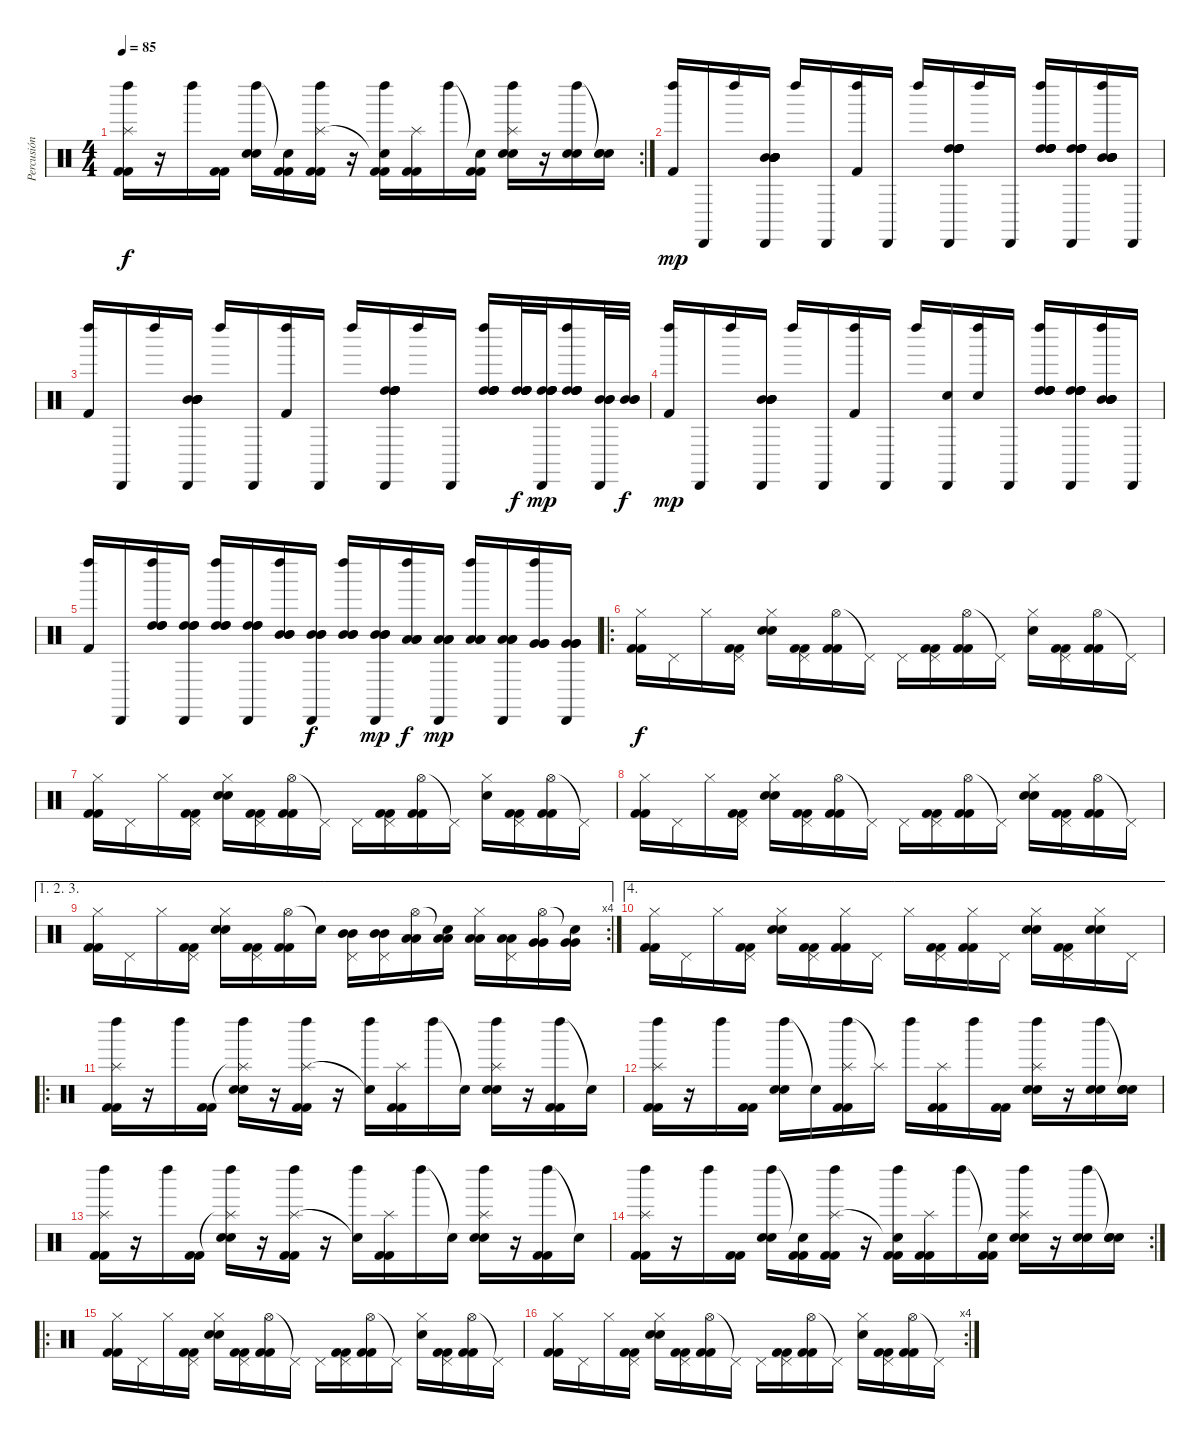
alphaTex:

\track ("Percusión" "Percusión") {instrument percussion}
\staff {score}
\articulation defaults
\rc 2
\ts (4 4)
\tempo 85
\clef neutral
\ks c
("Left Maraca (hit)" "Splash (hit)" "Kick (hit) 2" "Kick (hit) 2").16{dy f} r.16 "Left Maraca (hit)".16 ("Kick (hit) 2" "Kick (hit) 2").16 ("Left Maraca (hit)" "Electric Snare (hit)" "Electric Snare (hit)").16 ("Snare (hit)"{t} "Kick (hit) 2" "Kick (hit) 2").16 ("Left Maraca (hit)" "Splash (hit)" "Kick (hit) 2" "Kick (hit) 2").16 r.16 ("Left Maraca (hit)" "Snare (hit)"{t} "Kick (hit) 2" "Kick (hit) 2").16 ("Splash (hit)" "Kick (hit) 2" "Kick (hit) 2").16 "Left Maraca (hit)".16 ("Snare (hit)"{t} "Kick (hit) 2" "Kick (hit) 2").16 ("Left Maraca (hit)" "Splash (hit)" "Electric Snare (hit)" "Electric Snare (hit)").16 r.16 ("Left Maraca (hit)" "Electric Snare (hit)" "Electric Snare (hit)").16 ("Snare (hit)"{t} "Electric Snare (hit)" "Electric Snare (hit)").16 |
("Left Maraca (hit)" "Kick (hit) 2").16{dy mp} "Cabasa (hit)".16 "Left Maraca (hit)".16 ("Cabasa (hit)" "Mid Tom (hit)" "Mid Tom (hit)" "Mid Tom (hit)" "Mid Tom (hit)" "Mid Tom (hit)").16 "Left Maraca (hit)".16 "Cabasa (hit)".16 ("Left Maraca (hit)" "Kick (hit) 2").16 "Cabasa (hit)".16 "Left Maraca (hit)".16 ("Cabasa (hit)" "High Tom (hit)" "High Tom (hit)" "High Tom (hit)" "High Tom (hit)" "High Tom (hit)").16 "Left Maraca (hit)".16 "Cabasa (hit)".16 ("Left Maraca (hit)" "High Tom (hit)" "High Tom (hit)" "High Tom (hit)" "High Tom (hit)" "High Tom (hit)").16 ("Cabasa (hit)" "High Tom (hit)" "High Tom (hit)" "High Tom (hit)" "High Tom (hit)" "High Tom (hit)").16 ("Left Maraca (hit)" "Mid Tom (hit)" "Mid Tom (hit)" "Mid Tom (hit)" "Mid Tom (hit)" "Mid Tom (hit)").16 "Cabasa (hit)".16 |
("Left Maraca (hit)" "Kick (hit) 2").16 "Cabasa (hit)".16 "Left Maraca (hit)".16 ("Cabasa (hit)" "Mid Tom (hit)" "Mid Tom (hit)" "Mid Tom (hit)" "Mid Tom (hit)" "Mid Tom (hit)").16 "Left Maraca (hit)".16 "Cabasa (hit)".16 ("Left Maraca (hit)" "Kick (hit) 2").16 "Cabasa (hit)".16 "Left Maraca (hit)".16 ("Cabasa (hit)" "High Tom (hit)" "High Tom (hit)" "High Tom (hit)" "High Tom (hit)" "High Tom (hit)").16 "Left Maraca (hit)".16 "Cabasa (hit)".16 ("Left Maraca (hit)" "High Tom (hit)" "High Tom (hit)" "High Tom (hit)" "High Tom (hit)" "High Tom (hit)").16 ("High Tom (hit)" "High Tom (hit)" "High Tom (hit)" "High Tom (hit)" "High Tom (hit)").32{dy f} ("Cabasa (hit)" "High Tom (hit)" "High Tom (hit)" "High Tom (hit)" "High Tom (hit)" "High Tom (hit)").32{dy mp} ("Left Maraca (hit)" "High Tom (hit)" "High Tom (hit)" "High Tom (hit)" "High Tom (hit)" "High Tom (hit)").16 ("Cabasa (hit)" "Mid Tom (hit)" "Mid Tom (hit)" "Mid Tom (hit)").32 ("Mid Tom (hit)" "Mid Tom (hit)" "Mid Tom (hit)").32{dy f} |
("Left Maraca (hit)" "Kick (hit) 2").16{dy mp} "Cabasa (hit)".16 "Left Maraca (hit)".16 ("Cabasa (hit)" "Mid Tom (hit)" "Mid Tom (hit)" "Mid Tom (hit)" "Mid Tom (hit)" "Mid Tom (hit)").16 "Left Maraca (hit)".16 "Cabasa (hit)".16 ("Left Maraca (hit)" "Kick (hit) 2").16 "Cabasa (hit)".16 "Left Maraca (hit)".16 ("Cabasa (hit)" "Electric Snare (hit)").16 ("Left Maraca (hit)" "Electric Snare (hit)").16 "Cabasa (hit)".16 ("Left Maraca (hit)" "High Tom (hit)" "High Tom (hit)" "High Tom (hit)" "High Tom (hit)" "High Tom (hit)").16 ("Cabasa (hit)" "High Tom (hit)" "High Tom (hit)" "High Tom (hit)" "High Tom (hit)" "High Tom (hit)").16 ("Left Maraca (hit)" "Mid Tom (hit)" "Mid Tom (hit)" "Mid Tom (hit)" "Mid Tom (hit)" "Mid Tom (hit)").16 "Cabasa (hit)".16 |
("Left Maraca (hit)" "Kick (hit) 2").16 "Cabasa (hit)".16 ("Left Maraca (hit)" "High Tom (hit)" "High Tom (hit)" "High Tom (hit)").16 ("Cabasa (hit)" "High Tom (hit)" "High Tom (hit)" "High Tom (hit)").16 ("Left Maraca (hit)" "High Tom (hit)" "High Tom (hit)" "High Tom (hit)").16 ("Cabasa (hit)" "High Tom (hit)" "High Tom (hit)" "High Tom (hit)").16 ("Left Maraca (hit)" "Mid Tom (hit)" "Mid Tom (hit)" "Mid Tom (hit)").16 ("Cabasa (hit)" "Mid Tom (hit)" "Mid Tom (hit)" "Mid Tom (hit)").16{dy f} ("Left Maraca (hit)" "Mid Tom (hit)" "Mid Tom (hit)" "Mid Tom (hit)").16 ("Cabasa (hit)" "Mid Tom (hit)" "Mid Tom (hit)" "Mid Tom (hit)").16{dy mp} ("Left Maraca (hit)" "Low Tom (hit)" "Low Tom (hit)" "Low Tom (hit)").16{dy f} ("Cabasa (hit)" "Low Tom (hit)" "Low Tom (hit)" "Low Tom (hit)").16{dy mp} ("Left Maraca (hit)" "Low Tom (hit)" "Low Tom (hit)" "Low Tom (hit)").16 ("Cabasa (hit)" "Low Tom (hit)" "Low Tom (hit)" "Low Tom (hit)").16 ("Left Maraca (hit)" "Very Low Tom (hit)" "Very Low Tom (hit)" "Very Low Tom (hit)").16 ("Cabasa (hit)" "Very Low Tom (hit)" "Very Low Tom (hit)" "Very Low Tom (hit)").16 |
\ro
("Hi-Hat (closed)" "Kick (hit) 2" "Kick (hit) 2").16{dy f} "Pedal Hi-Hat (hit)".16 "Hi-Hat (closed)".16 ("Pedal Hi-Hat (hit)" "Kick (hit) 2" "Kick (hit) 2").16 ("Hi-Hat (closed)" "Electric Snare (hit)" "Electric Snare (hit)").16 ("Pedal Hi-Hat (hit)" "Kick (hit) 2" "Kick (hit) 2").16 ("Hi-Hat (open)" "Kick (hit) 2" "Kick (hit) 2").16 "Pedal Hi-Hat (hit)"{t}.16 "Pedal Hi-Hat (hit)".16 ("Pedal Hi-Hat (hit)" "Kick (hit) 2" "Kick (hit) 2").16 ("Hi-Hat (open)" "Kick (hit) 2" "Kick (hit) 2").16 "Pedal Hi-Hat (hit)"{t}.16 ("Hi-Hat (closed)" "Electric Snare (hit)").16 ("Pedal Hi-Hat (hit)" "Kick (hit) 2" "Kick (hit) 2").16 ("Hi-Hat (open)" "Kick (hit) 2" "Kick (hit) 2").16 "Pedal Hi-Hat (hit)"{t}.16 |
("Hi-Hat (closed)" "Kick (hit) 2" "Kick (hit) 2").16 "Pedal Hi-Hat (hit)".16 "Hi-Hat (closed)".16 ("Pedal Hi-Hat (hit)" "Kick (hit) 2" "Kick (hit) 2").16 ("Hi-Hat (closed)" "Electric Snare (hit)" "Electric Snare (hit)").16 ("Pedal Hi-Hat (hit)" "Kick (hit) 2" "Kick (hit) 2").16 ("Hi-Hat (open)" "Kick (hit) 2" "Kick (hit) 2").16 "Pedal Hi-Hat (hit)"{t}.16 "Pedal Hi-Hat (hit)".16 ("Pedal Hi-Hat (hit)" "Kick (hit) 2" "Kick (hit) 2").16 ("Hi-Hat (open)" "Kick (hit) 2" "Kick (hit) 2").16 "Pedal Hi-Hat (hit)"{t}.16 ("Hi-Hat (closed)" "Electric Snare (hit)").16 ("Pedal Hi-Hat (hit)" "Kick (hit) 2" "Kick (hit) 2").16 ("Hi-Hat (open)" "Kick (hit) 2" "Kick (hit) 2").16 "Pedal Hi-Hat (hit)"{t}.16 |
("Hi-Hat (closed)" "Kick (hit) 2" "Kick (hit) 2").16 "Pedal Hi-Hat (hit)".16 "Hi-Hat (closed)".16 ("Pedal Hi-Hat (hit)" "Kick (hit) 2" "Kick (hit) 2").16 ("Hi-Hat (closed)" "Electric Snare (hit)" "Electric Snare (hit)").16 ("Pedal Hi-Hat (hit)" "Kick (hit) 2" "Kick (hit) 2").16 ("Hi-Hat (open)" "Kick (hit) 2" "Kick (hit) 2").16 "Pedal Hi-Hat (hit)"{t}.16 "Pedal Hi-Hat (hit)".16 ("Pedal Hi-Hat (hit)" "Kick (hit) 2" "Kick (hit) 2").16 ("Hi-Hat (open)" "Kick (hit) 2" "Kick (hit) 2").16 "Pedal Hi-Hat (hit)"{t}.16 ("Hi-Hat (closed)" "Electric Snare (hit)" "Electric Snare (hit)").16 ("Pedal Hi-Hat (hit)" "Kick (hit) 2" "Kick (hit) 2").16 ("Hi-Hat (open)" "Kick (hit) 2" "Kick (hit) 2").16 "Pedal Hi-Hat (hit)"{t}.16 |
\ae (1 2 3)
\rc 4
("Hi-Hat (closed)" "Kick (hit) 2" "Kick (hit) 2").16 "Pedal Hi-Hat (hit)".16 "Hi-Hat (closed)".16 ("Pedal Hi-Hat (hit)" "Kick (hit) 2" "Kick (hit) 2").16 ("Hi-Hat (closed)" "Electric Snare (hit)" "Electric Snare (hit)").16 ("Pedal Hi-Hat (hit)" "Kick (hit) 2" "Kick (hit) 2").16 ("Hi-Hat (open)" "Kick (hit) 2" "Kick (hit) 2").16 "Snare (hit)"{t}.16 ("Pedal Hi-Hat (hit)" "Mid Tom (hit)" "Mid Tom (hit)").16 ("Pedal Hi-Hat (hit)" "Mid Tom (hit)" "Mid Tom (hit)").16 ("Hi-Hat (open)" "Low Tom (hit)" "Low Tom (hit)").16 ("Snare (hit)"{t} "Low Tom (hit)" "Low Tom (hit)").16 ("Hi-Hat (closed)" "Low Tom (hit)" "Low Tom (hit)").16 ("Pedal Hi-Hat (hit)" "Low Tom (hit)" "Low Tom (hit)").16 ("Hi-Hat (open)" "Very Low Tom (hit)" "Very Low Tom (hit)").16 ("Snare (hit)"{t} "Very Low Tom (hit)" "Very Low Tom (hit)").16 |
\ae 4
("Hi-Hat (closed)" "Kick (hit) 2" "Kick (hit) 2").16 "Pedal Hi-Hat (hit)".16 "Hi-Hat (closed)".16 ("Pedal Hi-Hat (hit)" "Kick (hit) 2" "Kick (hit) 2").16 ("Hi-Hat (closed)" "Electric Snare (hit)" "Electric Snare (hit)").16 ("Pedal Hi-Hat (hit)" "Kick (hit) 2" "Kick (hit) 2").16 ("Hi-Hat (closed)" "Kick (hit) 2" "Kick (hit) 2").16 "Pedal Hi-Hat (hit)".16 "Hi-Hat (closed)".16 ("Pedal Hi-Hat (hit)" "Kick (hit) 2" "Kick (hit) 2").16 ("Hi-Hat (closed)" "Kick (hit) 2" "Kick (hit) 2").16 "Pedal Hi-Hat (hit)".16 ("Hi-Hat (closed)" "Electric Snare (hit)" "Electric Snare (hit)").16 ("Pedal Hi-Hat (hit)" "Kick (hit) 2" "Kick (hit) 2").16 ("Hi-Hat (closed)" "Electric Snare (hit)" "Electric Snare (hit)").16 "Pedal Hi-Hat (hit)".16 |
\ro
("Left Maraca (hit)" "Splash (hit)" "Kick (hit) 2" "Kick (hit) 2").16 r.16 "Left Maraca (hit)".16 ("Kick (hit) 2" "Kick (hit) 2").16 ("Left Maraca (hit)" "Splash (hit)"{t} "Electric Snare (hit)" "Electric Snare (hit)").16 r.16 ("Left Maraca (hit)" "Splash (hit)" "Kick (hit) 2" "Kick (hit) 2").16 r.16 ("Left Maraca (hit)" "Snare (hit)"{t}).16 ("Splash (hit)" "Kick (hit) 2" "Kick (hit) 2").16 "Left Maraca (hit)".16 "Snare (hit)"{t}.16 ("Left Maraca (hit)" "Splash (hit)" "Electric Snare (hit)" "Electric Snare (hit)").16 r.16 ("Left Maraca (hit)" "Kick (hit) 2" "Kick (hit) 2").16 "Snare (hit)"{t}.16 |
("Left Maraca (hit)" "Splash (hit)" "Kick (hit) 2" "Kick (hit) 2").16 r.16 "Left Maraca (hit)".16 ("Kick (hit) 2" "Kick (hit) 2").16 ("Left Maraca (hit)" "Electric Snare (hit)" "Electric Snare (hit)").16 "Snare (hit)"{t}.16 ("Left Maraca (hit)" "Splash (hit)" "Kick (hit) 2" "Kick (hit) 2").16 "Splash (hit)"{t}.16 "Left Maraca (hit)".16 ("Splash (hit)" "Kick (hit) 2" "Kick (hit) 2").16 "Left Maraca (hit)".16 ("Kick (hit) 2" "Kick (hit) 2").16 ("Left Maraca (hit)" "Splash (hit)" "Electric Snare (hit)" "Electric Snare (hit)").16 r.16 ("Left Maraca (hit)" "Electric Snare (hit)" "Electric Snare (hit)").16 ("Snare (hit)"{t} "Electric Snare (hit)" "Electric Snare (hit)").16 |
("Left Maraca (hit)" "Splash (hit)" "Kick (hit) 2" "Kick (hit) 2").16 r.16 "Left Maraca (hit)".16 ("Kick (hit) 2" "Kick (hit) 2").16 ("Left Maraca (hit)" "Splash (hit)"{t} "Electric Snare (hit)" "Electric Snare (hit)").16 r.16 ("Left Maraca (hit)" "Splash (hit)" "Kick (hit) 2" "Kick (hit) 2").16 r.16 ("Left Maraca (hit)" "Snare (hit)"{t}).16 ("Splash (hit)" "Kick (hit) 2" "Kick (hit) 2").16 "Left Maraca (hit)".16 "Snare (hit)"{t}.16 ("Left Maraca (hit)" "Splash (hit)" "Electric Snare (hit)" "Electric Snare (hit)").16 r.16 ("Left Maraca (hit)" "Kick (hit) 2" "Kick (hit) 2").16 "Snare (hit)"{t}.16 |
\rc 2
("Left Maraca (hit)" "Splash (hit)" "Kick (hit) 2" "Kick (hit) 2").16 r.16 "Left Maraca (hit)".16 ("Kick (hit) 2" "Kick (hit) 2").16 ("Left Maraca (hit)" "Electric Snare (hit)" "Electric Snare (hit)").16 ("Snare (hit)"{t} "Kick (hit) 2" "Kick (hit) 2").16 ("Left Maraca (hit)" "Splash (hit)" "Kick (hit) 2" "Kick (hit) 2").16 r.16 ("Left Maraca (hit)" "Snare (hit)"{t} "Kick (hit) 2" "Kick (hit) 2").16 ("Splash (hit)" "Kick (hit) 2" "Kick (hit) 2").16 "Left Maraca (hit)".16 ("Snare (hit)"{t} "Kick (hit) 2" "Kick (hit) 2").16 ("Left Maraca (hit)" "Splash (hit)" "Electric Snare (hit)" "Electric Snare (hit)").16 r.16 ("Left Maraca (hit)" "Electric Snare (hit)" "Electric Snare (hit)").16 ("Snare (hit)"{t} "Electric Snare (hit)" "Electric Snare (hit)").16 |
\ro
("Hi-Hat (closed)" "Kick (hit) 2" "Kick (hit) 2").16 "Pedal Hi-Hat (hit)".16 "Hi-Hat (closed)".16 ("Pedal Hi-Hat (hit)" "Kick (hit) 2" "Kick (hit) 2").16 ("Hi-Hat (closed)" "Electric Snare (hit)" "Electric Snare (hit)").16 ("Pedal Hi-Hat (hit)" "Kick (hit) 2" "Kick (hit) 2").16 ("Hi-Hat (open)" "Kick (hit) 2" "Kick (hit) 2").16 "Pedal Hi-Hat (hit)"{t}.16 "Pedal Hi-Hat (hit)".16 ("Pedal Hi-Hat (hit)" "Kick (hit) 2" "Kick (hit) 2").16 ("Hi-Hat (open)" "Kick (hit) 2" "Kick (hit) 2").16 "Pedal Hi-Hat (hit)"{t}.16 ("Hi-Hat (closed)" "Electric Snare (hit)").16 ("Pedal Hi-Hat (hit)" "Kick (hit) 2" "Kick (hit) 2").16 ("Hi-Hat (open)" "Kick (hit) 2" "Kick (hit) 2").16 "Pedal Hi-Hat (hit)"{t}.16 |
\rc 4
("Hi-Hat (closed)" "Kick (hit) 2" "Kick (hit) 2").16 "Pedal Hi-Hat (hit)".16 "Hi-Hat (closed)".16 ("Pedal Hi-Hat (hit)" "Kick (hit) 2" "Kick (hit) 2").16 ("Hi-Hat (closed)" "Electric Snare (hit)" "Electric Snare (hit)").16 ("Pedal Hi-Hat (hit)" "Kick (hit) 2" "Kick (hit) 2").16 ("Hi-Hat (open)" "Kick (hit) 2" "Kick (hit) 2").16 "Pedal Hi-Hat (hit)"{t}.16 "Pedal Hi-Hat (hit)".16 ("Pedal Hi-Hat (hit)" "Kick (hit) 2" "Kick (hit) 2").16 ("Hi-Hat (open)" "Kick (hit) 2" "Kick (hit) 2").16 "Pedal Hi-Hat (hit)"{t}.16 ("Hi-Hat (closed)" "Electric Snare (hit)").16 ("Pedal Hi-Hat (hit)" "Kick (hit) 2" "Kick (hit) 2").16 ("Hi-Hat (open)" "Kick (hit) 2" "Kick (hit) 2").16 "Pedal Hi-Hat (hit)"{t}.16
